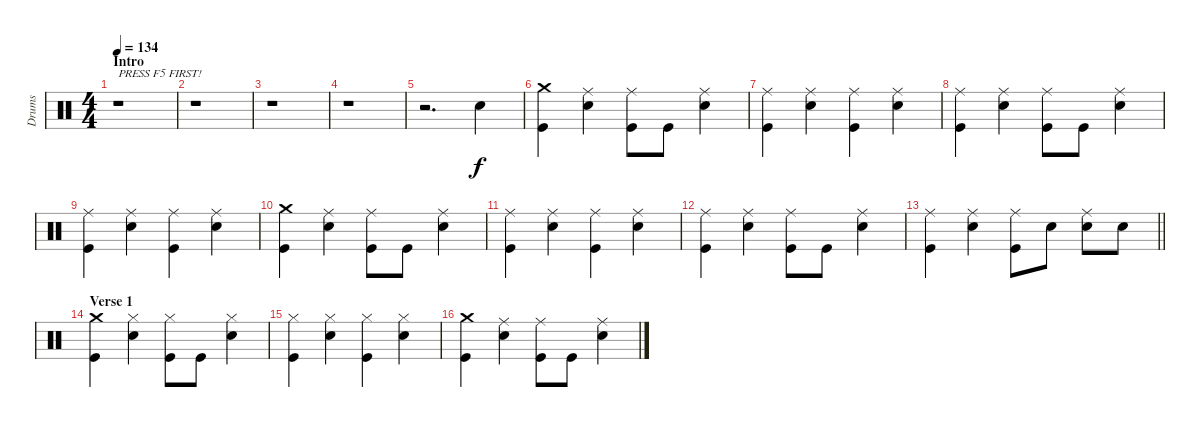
\track ("Drums" "Drums") {instrument percussion}
\staff {score}
\articulation defaults
\ts (4 4)
\section ("" "Intro")
\tempo 134
\clef neutral
\ks c
r.1{txt "PRESS F5 FIRST!" dy f} |
r.1 |
r.1 |
r.1 |
r.2{d} "Snare (hit) 2".4 |
("Crash medium (hit)" "Kick (hit)").4 ("Ride (middle)" "Snare (hit) 2").4 ("Ride (middle)" "Kick (hit)").8 "Kick (hit)".8 ("Ride (middle)" "Snare (hit) 2").4 |
("Ride (middle)" "Kick (hit)").4 ("Ride (middle)" "Snare (hit) 2").4 ("Ride (middle)" "Kick (hit)").4 ("Ride (middle)" "Snare (hit) 2").4 |
("Ride (middle)" "Kick (hit)").4 ("Ride (middle)" "Snare (hit) 2").4 ("Ride (middle)" "Kick (hit)").8 "Kick (hit)".8 ("Ride (middle)" "Snare (hit) 2").4 |
("Ride (middle)" "Kick (hit)").4 ("Ride (middle)" "Snare (hit) 2").4 ("Ride (middle)" "Kick (hit)").4 ("Ride (middle)" "Snare (hit) 2").4 |
("Crash medium (hit)" "Kick (hit)").4 ("Ride (middle)" "Snare (hit) 2").4 ("Ride (middle)" "Kick (hit)").8 "Kick (hit)".8 ("Ride (middle)" "Snare (hit) 2").4 |
("Ride (middle)" "Kick (hit)").4 ("Ride (middle)" "Snare (hit) 2").4 ("Ride (middle)" "Kick (hit)").4 ("Ride (middle)" "Snare (hit) 2").4 |
("Ride (middle)" "Kick (hit)").4 ("Ride (middle)" "Snare (hit) 2").4 ("Ride (middle)" "Kick (hit)").8 "Kick (hit)".8 ("Ride (middle)" "Snare (hit) 2").4 |
\barLineRight lightlight
("Ride (middle)" "Kick (hit)").4 ("Ride (middle)" "Snare (hit) 2").4 ("Ride (middle)" "Kick (hit)").8 "Snare (hit) 2".8 ("Ride (middle)" "Snare (hit) 2").8 "Snare (hit) 2".8 |
\section ("" "Verse 1")
("Crash medium (hit)" "Kick (hit)").4 ("Hi-Hat (closed)" "Snare (hit) 2").4 ("Hi-Hat (closed)" "Kick (hit)").8 "Kick (hit)".8 ("Hi-Hat (closed)" "Snare (hit) 2").4 |
("Hi-Hat (closed)" "Kick (hit)").4 ("Hi-Hat (closed)" "Snare (hit) 2").4 ("Hi-Hat (closed)" "Kick (hit)").4 ("Hi-Hat (closed)" "Snare (hit) 2").4 |
("Crash medium (hit)" "Kick (hit)").4 ("Ride (middle)" "Snare (hit) 2").4 ("Ride (middle)" "Kick (hit)").8 "Kick (hit)".8 ("Ride (middle)" "Snare (hit) 2").4
